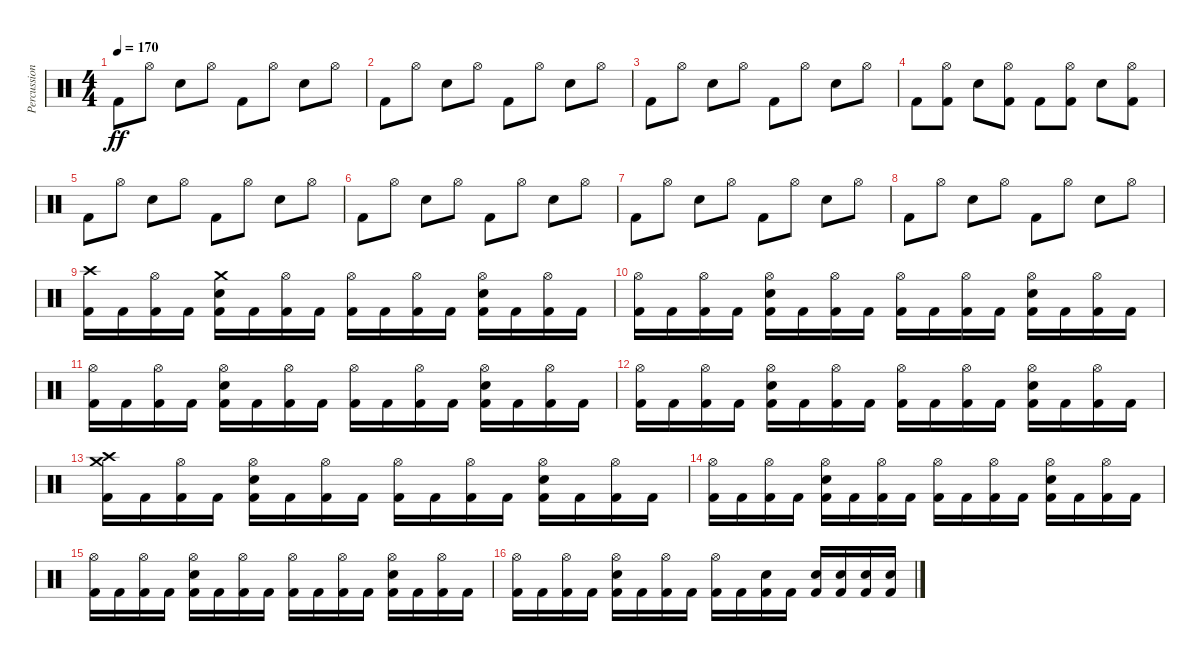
\track ("Percussion" "Percussion") {instrument percussion}
\staff {score}
\articulation defaults
\ts (4 4)
\tempo 170
\clef neutral
\ks c "Kick (hit) 2".8{dy ff} "Hi-Hat (open)".8 "Electric Snare (hit)".8 "Hi-Hat (open)".8 "Kick (hit) 2".8 "Hi-Hat (open)".8 "Electric Snare (hit)".8 "Hi-Hat (open)".8
|
"Kick (hit) 2".8 "Hi-Hat (open)".8 "Electric Snare (hit)".8 "Hi-Hat (open)".8 "Kick (hit) 2".8 "Hi-Hat (open)".8 "Electric Snare (hit)".8 "Hi-Hat (open)".8 |
"Kick (hit) 2".8 "Hi-Hat (open)".8 "Electric Snare (hit)".8 "Hi-Hat (open)".8 "Kick (hit) 2".8 "Hi-Hat (open)".8 "Electric Snare (hit)".8 "Hi-Hat (open)".8 |
"Kick (hit) 2".8 ("Kick (hit) 2" "Hi-Hat (open)").8 "Electric Snare (hit)".8 ("Kick (hit) 2" "Hi-Hat (open)").8 "Kick (hit) 2".8 ("Kick (hit) 2" "Hi-Hat (open)").8 "Electric Snare (hit)".8 ("Kick (hit) 2" "Hi-Hat (open)").8 |
"Kick (hit) 2".8 "Hi-Hat (open)".8 "Electric Snare (hit)".8 "Hi-Hat (open)".8 "Kick (hit) 2".8 "Hi-Hat (open)".8 "Electric Snare (hit)".8 "Hi-Hat (open)".8 |
"Kick (hit) 2".8 "Hi-Hat (open)".8 "Electric Snare (hit)".8 "Hi-Hat (open)".8 "Kick (hit) 2".8 "Hi-Hat (open)".8 "Electric Snare (hit)".8 "Hi-Hat (open)".8 |
"Kick (hit) 2".8 "Hi-Hat (open)".8 "Electric Snare (hit)".8 "Hi-Hat (open)".8 "Kick (hit) 2".8 "Hi-Hat (open)".8 "Electric Snare (hit)".8 "Hi-Hat (open)".8 |
"Kick (hit) 2".8 "Hi-Hat (open)".8 "Electric Snare (hit)".8 "Hi-Hat (open)".8 "Kick (hit) 2".8 "Hi-Hat (open)".8 "Electric Snare (hit)".8 "Hi-Hat (open)".8 |
("Kick (hit) 2" "Crash high (hit)").16 "Kick (hit) 2".16 ("Kick (hit) 2" "Hi-Hat (open)").16 "Kick (hit) 2".16 ("Kick (hit) 2" "Electric Snare (hit)" "Crash medium (hit)").16 "Kick (hit) 2".16 ("Kick (hit) 2" "Hi-Hat (open)").16 "Kick (hit) 2".16 ("Kick (hit) 2" "Hi-Hat (open)").16 "Kick (hit) 2".16 ("Kick (hit) 2" "Hi-Hat (open)").16 "Kick (hit) 2".16 ("Kick (hit) 2" "Electric Snare (hit)" "Hi-Hat (open)").16 "Kick (hit) 2".16 ("Kick (hit) 2" "Hi-Hat (open)").16 "Kick (hit) 2".16 |
("Kick (hit) 2" "Hi-Hat (open)").16 "Kick (hit) 2".16 ("Kick (hit) 2" "Hi-Hat (open)").16 "Kick (hit) 2".16 ("Kick (hit) 2" "Electric Snare (hit)" "Hi-Hat (open)").16 "Kick (hit) 2".16 ("Kick (hit) 2" "Hi-Hat (open)").16 "Kick (hit) 2".16 ("Kick (hit) 2" "Hi-Hat (open)").16 "Kick (hit) 2".16 ("Kick (hit) 2" "Hi-Hat (open)").16 "Kick (hit) 2".16 ("Kick (hit) 2" "Electric Snare (hit)" "Hi-Hat (open)").16 "Kick (hit) 2".16 ("Kick (hit) 2" "Hi-Hat (open)").16 "Kick (hit) 2".16 |
("Kick (hit) 2" "Hi-Hat (open)").16 "Kick (hit) 2".16 ("Kick (hit) 2" "Hi-Hat (open)").16 "Kick (hit) 2".16 ("Kick (hit) 2" "Electric Snare (hit)" "Hi-Hat (open)").16 "Kick (hit) 2".16 ("Kick (hit) 2" "Hi-Hat (open)").16 "Kick (hit) 2".16 ("Kick (hit) 2" "Hi-Hat (open)").16 "Kick (hit) 2".16 ("Kick (hit) 2" "Hi-Hat (open)").16 "Kick (hit) 2".16 ("Kick (hit) 2" "Electric Snare (hit)" "Hi-Hat (open)").16 "Kick (hit) 2".16 ("Kick (hit) 2" "Hi-Hat (open)").16 "Kick (hit) 2".16 |
("Kick (hit) 2" "Hi-Hat (open)").16 "Kick (hit) 2".16 ("Kick (hit) 2" "Hi-Hat (open)").16 "Kick (hit) 2".16 ("Kick (hit) 2" "Electric Snare (hit)" "Hi-Hat (open)").16 "Kick (hit) 2".16 ("Kick (hit) 2" "Hi-Hat (open)").16 "Kick (hit) 2".16 ("Kick (hit) 2" "Hi-Hat (open)").16 "Kick (hit) 2".16 ("Kick (hit) 2" "Hi-Hat (open)").16 "Kick (hit) 2".16 ("Kick (hit) 2" "Electric Snare (hit)" "Hi-Hat (open)").16 "Kick (hit) 2".16 ("Kick (hit) 2" "Hi-Hat (open)").16 "Kick (hit) 2".16 |
("Kick (hit) 2" "Crash medium (hit)" "Crash high (hit)").16 "Kick (hit) 2".16 ("Kick (hit) 2" "Hi-Hat (open)").16 "Kick (hit) 2".16 ("Kick (hit) 2" "Electric Snare (hit)" "Hi-Hat (open)").16 "Kick (hit) 2".16 ("Kick (hit) 2" "Hi-Hat (open)").16 "Kick (hit) 2".16 ("Kick (hit) 2" "Hi-Hat (open)").16 "Kick (hit) 2".16 ("Kick (hit) 2" "Hi-Hat (open)").16 "Kick (hit) 2".16 ("Kick (hit) 2" "Electric Snare (hit)" "Hi-Hat (open)").16 "Kick (hit) 2".16 ("Kick (hit) 2" "Hi-Hat (open)").16 "Kick (hit) 2".16 |
("Kick (hit) 2" "Hi-Hat (open)").16 "Kick (hit) 2".16 ("Kick (hit) 2" "Hi-Hat (open)").16 "Kick (hit) 2".16 ("Kick (hit) 2" "Electric Snare (hit)" "Hi-Hat (open)").16 "Kick (hit) 2".16 ("Kick (hit) 2" "Hi-Hat (open)").16 "Kick (hit) 2".16 ("Kick (hit) 2" "Hi-Hat (open)").16 "Kick (hit) 2".16 ("Kick (hit) 2" "Hi-Hat (open)").16 "Kick (hit) 2".16 ("Kick (hit) 2" "Electric Snare (hit)" "Hi-Hat (open)").16 "Kick (hit) 2".16 ("Kick (hit) 2" "Hi-Hat (open)").16 "Kick (hit) 2".16 |
("Kick (hit) 2" "Hi-Hat (open)").16 "Kick (hit) 2".16 ("Kick (hit) 2" "Hi-Hat (open)").16 "Kick (hit) 2".16 ("Kick (hit) 2" "Electric Snare (hit)" "Hi-Hat (open)").16 "Kick (hit) 2".16 ("Kick (hit) 2" "Hi-Hat (open)").16 "Kick (hit) 2".16 ("Kick (hit) 2" "Hi-Hat (open)").16 "Kick (hit) 2".16 ("Kick (hit) 2" "Hi-Hat (open)").16 "Kick (hit) 2".16 ("Kick (hit) 2" "Electric Snare (hit)" "Hi-Hat (open)").16 "Kick (hit) 2".16 ("Kick (hit) 2" "Hi-Hat (open)").16 "Kick (hit) 2".16 |
("Kick (hit) 2" "Hi-Hat (open)").16 "Kick (hit) 2".16 ("Kick (hit) 2" "Hi-Hat (open)").16 "Kick (hit) 2".16 ("Kick (hit) 2" "Electric Snare (hit)" "Hi-Hat (open)").16 "Kick (hit) 2".16 ("Kick (hit) 2" "Hi-Hat (open)").16 "Kick (hit) 2".16 ("Kick (hit) 2" "Hi-Hat (open)").16 "Kick (hit) 2".16 ("Kick (hit) 2" "Electric Snare (hit)").16 "Kick (hit) 2".16 ("Kick (hit) 2" "Electric Snare (hit)").16 ("Kick (hit) 2" "Electric Snare (hit)").16 ("Kick (hit) 2" "Electric Snare (hit)").16 ("Kick (hit) 2" "Electric Snare (hit)").16
